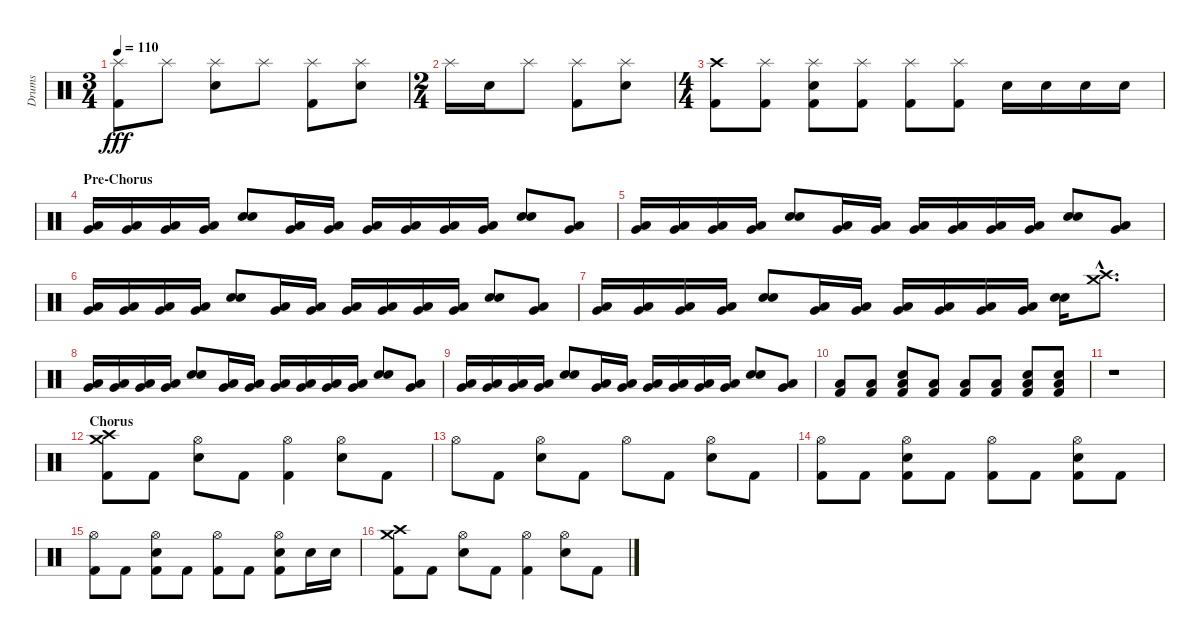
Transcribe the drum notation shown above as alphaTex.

\track ("Drums" "Drums") {instrument percussion}
\staff {score}
\articulation defaults
\ts (3 4)
\tempo 110
\clef neutral
\ks c
("Splash (hit)" "Kick (hit) 2").8{dy fff} "Splash (hit)".8 ("Splash (hit)" "Electric Snare (hit)").8 "Splash (hit)".8 ("Splash (hit)" "Kick (hit) 2").8 ("Splash (hit)" "Electric Snare (hit)").8 |
\ts (2 4)
"Splash (hit)".16 "Electric Snare (hit)".16 "Splash (hit)".8 ("Splash (hit)" "Kick (hit) 2").8 ("Splash (hit)" "Electric Snare (hit)").8 |
\ts (4 4)
("Crash high (hit)" "Kick (hit) 2").8 ("Splash (hit)" "Kick (hit) 2").8 ("Splash (hit)" "Electric Snare (hit)" "Kick (hit) 2").8 ("Splash (hit)" "Kick (hit) 2").8 ("Splash (hit)" "Kick (hit) 2").8 ("Splash (hit)" "Kick (hit) 2").8 "Electric Snare (hit)".16 "Electric Snare (hit)".16 "Electric Snare (hit)".16 "Electric Snare (hit)".16 |
\section ("" "Pre-Chorus")
("Low Tom (hit)" "Very Low Tom (hit)").16 ("Low Tom (hit)" "Very Low Tom (hit)").16 ("Low Tom (hit)" "Very Low Tom (hit)").16 ("Very Low Tom (hit)" "Low Floor Tom (hit)").16 ("Electric Snare (hit)" "Electric Snare (hit)").8 ("Low Tom (hit)" "Very Low Tom (hit)").16 ("Very Low Tom (hit)" "Low Floor Tom (hit)").16 ("Very Low Tom (hit)" "Low Floor Tom (hit)").16 ("Low Tom (hit)" "Very Low Tom (hit)").16 ("Low Tom (hit)" "Very Low Tom (hit)").16 ("Very Low Tom (hit)" "Low Floor Tom (hit)").16 ("Electric Snare (hit)" "Electric Snare (hit)").8 ("Very Low Tom (hit)" "Low Floor Tom (hit)").8 |
("Low Tom (hit)" "Very Low Tom (hit)").16 ("Low Tom (hit)" "Very Low Tom (hit)").16 ("Low Tom (hit)" "Very Low Tom (hit)").16 ("Very Low Tom (hit)" "Low Floor Tom (hit)").16 ("Electric Snare (hit)" "Electric Snare (hit)").8 ("Low Tom (hit)" "Very Low Tom (hit)").16 ("Very Low Tom (hit)" "Low Floor Tom (hit)").16 ("Very Low Tom (hit)" "Low Floor Tom (hit)").16 ("Low Tom (hit)" "Very Low Tom (hit)").16 ("Low Tom (hit)" "Very Low Tom (hit)").16 ("Very Low Tom (hit)" "Low Floor Tom (hit)").16 ("Electric Snare (hit)" "Electric Snare (hit)").8 ("Very Low Tom (hit)" "Low Floor Tom (hit)").8 |
("Low Tom (hit)" "Very Low Tom (hit)").16 ("Low Tom (hit)" "Very Low Tom (hit)").16 ("Low Tom (hit)" "Very Low Tom (hit)").16 ("Very Low Tom (hit)" "Low Floor Tom (hit)").16 ("Electric Snare (hit)" "Electric Snare (hit)").8 ("Low Tom (hit)" "Very Low Tom (hit)").16 ("Very Low Tom (hit)" "Low Floor Tom (hit)").16 ("Very Low Tom (hit)" "Low Floor Tom (hit)").16 ("Low Tom (hit)" "Very Low Tom (hit)").16 ("Low Tom (hit)" "Very Low Tom (hit)").16 ("Very Low Tom (hit)" "Low Floor Tom (hit)").16 ("Electric Snare (hit)" "Electric Snare (hit)").8 ("Very Low Tom (hit)" "Low Floor Tom (hit)").8 |
("Low Tom (hit)" "Very Low Tom (hit)").16 ("Low Tom (hit)" "Very Low Tom (hit)").16 ("Low Tom (hit)" "Very Low Tom (hit)").16 ("Very Low Tom (hit)" "Low Floor Tom (hit)").16 ("Electric Snare (hit)" "Electric Snare (hit)").8 ("Low Tom (hit)" "Very Low Tom (hit)").16 ("Very Low Tom (hit)" "Low Floor Tom (hit)").16 ("Very Low Tom (hit)" "Low Floor Tom (hit)").16 ("Low Tom (hit)" "Very Low Tom (hit)").16 ("Low Tom (hit)" "Very Low Tom (hit)").16 ("Very Low Tom (hit)" "Low Floor Tom (hit)").16 ("Electric Snare (hit)" "Electric Snare (hit)").16 ("Crash high (hit)"{hac} "Crash medium (hit)"{hac}).8{d} |
("Low Tom (hit)" "Very Low Tom (hit)").16 ("Low Tom (hit)" "Very Low Tom (hit)").16 ("Low Tom (hit)" "Very Low Tom (hit)").16 ("Very Low Tom (hit)" "Low Floor Tom (hit)").16 ("Electric Snare (hit)" "Electric Snare (hit)").8 ("Low Tom (hit)" "Very Low Tom (hit)").16 ("Very Low Tom (hit)" "Low Floor Tom (hit)").16 ("Very Low Tom (hit)" "Low Floor Tom (hit)").16 ("Low Tom (hit)" "Very Low Tom (hit)").16 ("Low Tom (hit)" "Very Low Tom (hit)").16 ("Very Low Tom (hit)" "Low Floor Tom (hit)").16 ("Electric Snare (hit)" "Electric Snare (hit)").8 ("Very Low Tom (hit)" "Low Floor Tom (hit)").8 |
("Low Tom (hit)" "Very Low Tom (hit)").16 ("Low Tom (hit)" "Very Low Tom (hit)").16 ("Low Tom (hit)" "Very Low Tom (hit)").16 ("Very Low Tom (hit)" "Low Floor Tom (hit)").16 ("Electric Snare (hit)" "Electric Snare (hit)").8 ("Low Tom (hit)" "Very Low Tom (hit)").16 ("Very Low Tom (hit)" "Low Floor Tom (hit)").16 ("Very Low Tom (hit)" "Low Floor Tom (hit)").16 ("Low Tom (hit)" "Very Low Tom (hit)").16 ("Low Tom (hit)" "Very Low Tom (hit)").16 ("Very Low Tom (hit)" "Low Floor Tom (hit)").16 ("Electric Snare (hit)" "Electric Snare (hit)").8 ("Very Low Tom (hit)" "Low Floor Tom (hit)").8 |
("Low Tom (hit)" "Kick (hit) 2").8 ("Low Tom (hit)" "Kick (hit) 2").8 ("Low Tom (hit)" "Electric Snare (hit)" "Kick (hit) 2").8 ("Low Tom (hit)" "Kick (hit) 2").8 ("Low Tom (hit)" "Kick (hit) 2").8 ("Low Tom (hit)" "Kick (hit) 2").8 ("Low Tom (hit)" "Electric Snare (hit)" "Kick (hit) 2").8 ("Low Tom (hit)" "Electric Snare (hit)" "Kick (hit) 2").8 |
r.1 |
\section ("" "Chorus")
("Crash high (hit)" "Crash medium (hit)" "Kick (hit) 2").8 "Kick (hit) 2".8 ("Hi-Hat (open)" "Electric Snare (hit)").8 "Kick (hit) 2".8 ("Hi-Hat (open)" "Kick (hit) 2").4 ("Hi-Hat (open)" "Electric Snare (hit)").8 "Kick (hit) 2".8 |
"Hi-Hat (open)".8 "Kick (hit) 2".8 ("Hi-Hat (open)" "Electric Snare (hit)").8 "Kick (hit) 2".8 "Hi-Hat (open)".8 "Kick (hit) 2".8 ("Hi-Hat (open)" "Electric Snare (hit)").8 "Kick (hit) 2".8 |
("Hi-Hat (open)" "Kick (hit) 2").8 "Kick (hit) 2".8 ("Hi-Hat (open)" "Electric Snare (hit)" "Kick (hit) 2").8 "Kick (hit) 2".8 ("Hi-Hat (open)" "Kick (hit) 2").8 "Kick (hit) 2".8 ("Hi-Hat (open)" "Electric Snare (hit)" "Kick (hit) 2").8 "Kick (hit) 2".8 |
("Hi-Hat (open)" "Kick (hit) 2").8 "Kick (hit) 2".8 ("Hi-Hat (open)" "Electric Snare (hit)" "Kick (hit) 2").8 "Kick (hit) 2".8 ("Hi-Hat (open)" "Kick (hit) 2").8 "Kick (hit) 2".8 ("Hi-Hat (open)" "Electric Snare (hit)" "Kick (hit) 2").8 "Electric Snare (hit)".16 "Electric Snare (hit)".16 |
("Crash high (hit)" "Crash medium (hit)" "Kick (hit) 2").8 "Kick (hit) 2".8 ("Hi-Hat (open)" "Electric Snare (hit)").8 "Kick (hit) 2".8 ("Hi-Hat (open)" "Kick (hit) 2").4 ("Hi-Hat (open)" "Electric Snare (hit)").8 "Kick (hit) 2".8
